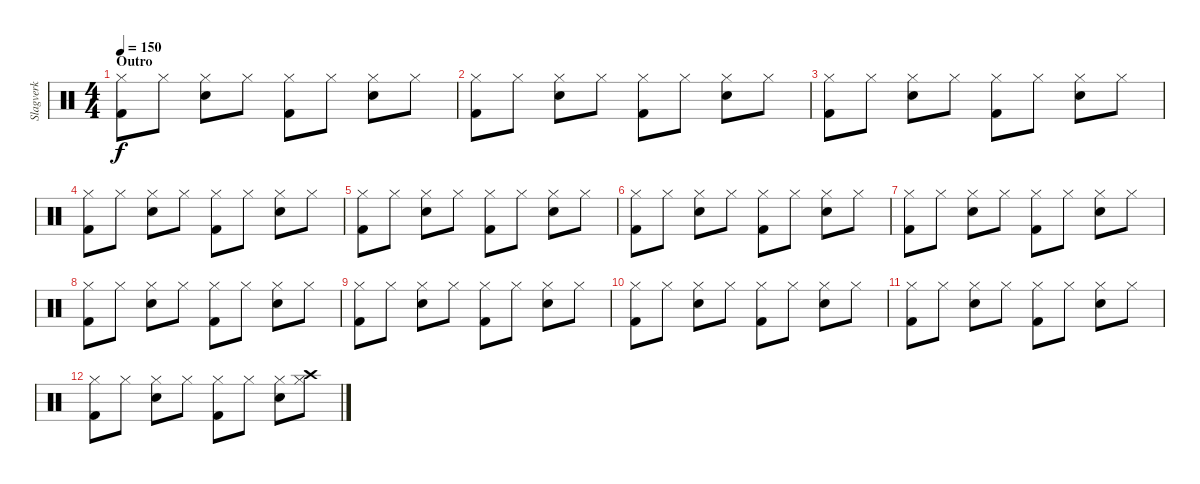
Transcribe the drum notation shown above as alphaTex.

\track ("Slagverk" "Slagverk") {instrument percussion}
\staff {score}
\articulation defaults
\ts (4 4)
\section ("" "Outro")
\tempo 150
\clef neutral
\ks c
("Kick (hit) 2" "Hi-Hat (closed)").8{dy f} "Hi-Hat (closed)".8 ("Snare (hit) 2" "Hi-Hat (closed)").8 "Hi-Hat (closed)".8 ("Kick (hit) 2" "Hi-Hat (closed)").8 "Hi-Hat (closed)".8 ("Snare (hit) 2" "Hi-Hat (closed)").8 "Hi-Hat (closed)".8 |
("Kick (hit) 2" "Hi-Hat (closed)").8 "Hi-Hat (closed)".8 ("Snare (hit) 2" "Hi-Hat (closed)").8 "Hi-Hat (closed)".8 ("Kick (hit) 2" "Hi-Hat (closed)").8 "Hi-Hat (closed)".8 ("Snare (hit) 2" "Hi-Hat (closed)").8 "Hi-Hat (closed)".8 |
("Kick (hit) 2" "Hi-Hat (closed)").8 "Hi-Hat (closed)".8 ("Snare (hit) 2" "Hi-Hat (closed)").8 "Hi-Hat (closed)".8 ("Kick (hit) 2" "Hi-Hat (closed)").8 "Hi-Hat (closed)".8 ("Snare (hit) 2" "Hi-Hat (closed)").8 "Hi-Hat (closed)".8 |
("Kick (hit) 2" "Hi-Hat (closed)").8 "Hi-Hat (closed)".8 ("Snare (hit) 2" "Hi-Hat (closed)").8 "Hi-Hat (closed)".8 ("Kick (hit) 2" "Hi-Hat (closed)").8 "Hi-Hat (closed)".8 ("Snare (hit) 2" "Hi-Hat (closed)").8 "Hi-Hat (closed)".8 |
("Kick (hit) 2" "Hi-Hat (closed)").8 "Hi-Hat (closed)".8 ("Snare (hit) 2" "Hi-Hat (closed)").8 "Hi-Hat (closed)".8 ("Kick (hit) 2" "Hi-Hat (closed)").8 "Hi-Hat (closed)".8 ("Snare (hit) 2" "Hi-Hat (closed)").8 "Hi-Hat (closed)".8 |
("Kick (hit) 2" "Hi-Hat (closed)").8 "Hi-Hat (closed)".8 ("Snare (hit) 2" "Hi-Hat (closed)").8 "Hi-Hat (closed)".8 ("Kick (hit) 2" "Hi-Hat (closed)").8 "Hi-Hat (closed)".8 ("Snare (hit) 2" "Hi-Hat (closed)").8 "Hi-Hat (closed)".8 |
("Kick (hit) 2" "Hi-Hat (closed)").8 "Hi-Hat (closed)".8 ("Snare (hit) 2" "Hi-Hat (closed)").8 "Hi-Hat (closed)".8 ("Kick (hit) 2" "Hi-Hat (closed)").8 "Hi-Hat (closed)".8 ("Snare (hit) 2" "Hi-Hat (closed)").8 "Hi-Hat (closed)".8 |
("Kick (hit) 2" "Hi-Hat (closed)").8 "Hi-Hat (closed)".8 ("Snare (hit) 2" "Hi-Hat (closed)").8 "Hi-Hat (closed)".8 ("Kick (hit) 2" "Hi-Hat (closed)").8 "Hi-Hat (closed)".8 ("Snare (hit) 2" "Hi-Hat (closed)").8 "Hi-Hat (closed)".8 |
("Kick (hit) 2" "Hi-Hat (closed)").8 "Hi-Hat (closed)".8 ("Snare (hit) 2" "Hi-Hat (closed)").8 "Hi-Hat (closed)".8 ("Kick (hit) 2" "Hi-Hat (closed)").8 "Hi-Hat (closed)".8 ("Snare (hit) 2" "Hi-Hat (closed)").8 "Hi-Hat (closed)".8 |
("Kick (hit) 2" "Hi-Hat (closed)").8 "Hi-Hat (closed)".8 ("Snare (hit) 2" "Hi-Hat (closed)").8 "Hi-Hat (closed)".8 ("Kick (hit) 2" "Hi-Hat (closed)").8 "Hi-Hat (closed)".8 ("Snare (hit) 2" "Hi-Hat (closed)").8 "Hi-Hat (closed)".8 |
("Kick (hit) 2" "Hi-Hat (closed)").8 "Hi-Hat (closed)".8 ("Snare (hit) 2" "Hi-Hat (closed)").8 "Hi-Hat (closed)".8 ("Kick (hit) 2" "Hi-Hat (closed)").8 "Hi-Hat (closed)".8 ("Snare (hit) 2" "Hi-Hat (closed)").8 "Hi-Hat (closed)".8 |
("Kick (hit) 2" "Hi-Hat (closed)").8 "Hi-Hat (closed)".8 ("Snare (hit) 2" "Hi-Hat (closed)").8 "Hi-Hat (closed)".8 ("Kick (hit) 2" "Hi-Hat (closed)").8 "Hi-Hat (closed)".8 ("Snare (hit) 2" "Hi-Hat (closed)").8 ("Crash high (hit)" "Hi-Hat (closed)").8
